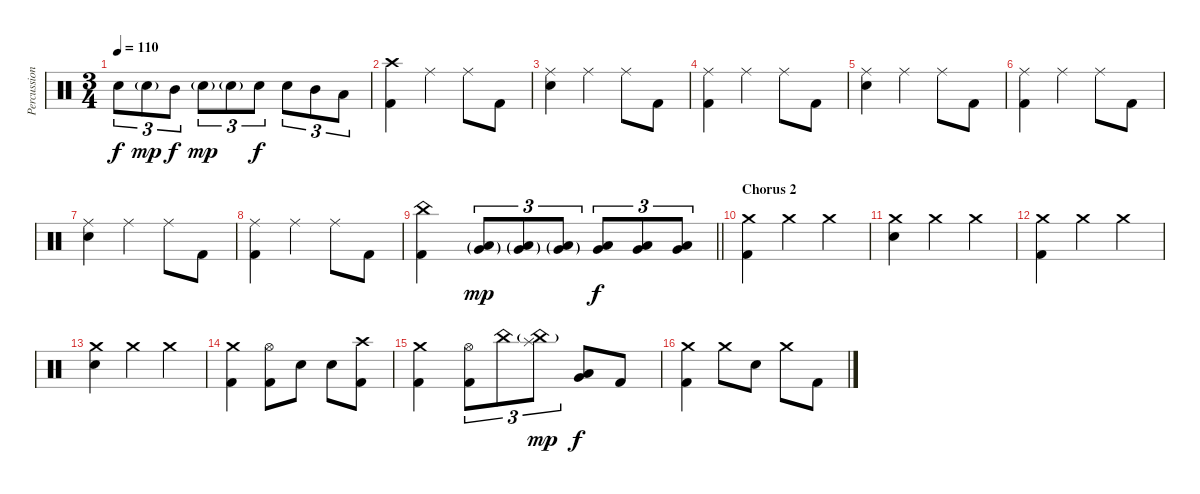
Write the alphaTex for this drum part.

\track ("Percussion" "Percussion") {instrument percussion}
\staff {score}
\articulation defaults
\ts (3 4)
\tempo 110
\clef neutral
\ks c "Snare (hit) 2".8{tu (3 2) dy f} "Snare (hit) 2"{g}.8{tu (3 2) dy mp} "Mid Tom (hit)".8{tu (3 2) dy f} "Snare (hit) 2"{g}.8{tu (3 2) dy mp} "Snare (hit) 2"{g}.8{tu (3 2)} "Snare (hit) 2".8{tu (3 2) dy f} "Snare (hit) 2".8{tu (3 2)} "Mid Tom (hit)".8{tu (3 2)} "Low Tom (hit)".8{tu (3 2)}
|
("Crash high (hit)" "Kick (hit) 2").4 "Ride (middle)".4 "Ride (middle)".8 "Kick (hit) 2".8 |
("Ride (middle)" "Snare (hit) 2").4 "Ride (middle)".4 "Ride (middle)".8 "Kick (hit) 2".8 |
("Ride (middle)" "Kick (hit) 2").4 "Ride (middle)".4 "Ride (middle)".8 "Kick (hit) 2".8 |
("Ride (middle)" "Snare (hit) 2").4 "Ride (middle)".4 "Ride (middle)".8 "Kick (hit) 2".8 |
("Ride (middle)" "Kick (hit) 2").4 "Ride (middle)".4 "Ride (middle)".8 "Kick (hit) 2".8 |
("Ride (middle)" "Snare (hit) 2").4 "Ride (middle)".4 "Ride (middle)".8 "Kick (hit) 2".8 |
("Ride (middle)" "Kick (hit) 2").4 "Ride (middle)".4 "Ride (middle)".8 "Kick (hit) 2".8 |
\barLineRight lightlight
("China (hit)" "Kick (hit) 2").4 ("Low Tom (hit)"{g} "Very Low Tom (hit)"{g}).8{tu (3 2) dy mp} ("Low Tom (hit)"{g} "Very Low Tom (hit)"{g}).8{tu (3 2)} ("Low Tom (hit)"{g} "Very Low Tom (hit)"{g}).8{tu (3 2)} ("Low Tom (hit)" "Very Low Tom (hit)").8{tu (3 2) dy f} ("Low Tom (hit)" "Very Low Tom (hit)").8{tu (3 2)} ("Low Tom (hit)" "Very Low Tom (hit)").8{tu (3 2)} |
\section ("" "Chorus 2")
("Crash medium (hit)" "Kick (hit) 2").4 "Crash medium (hit)".4 "Crash medium (hit)".4 |
("Crash medium (hit)" "Snare (hit) 2").4 "Crash medium (hit)".4 "Crash medium (hit)".4 |
("Crash medium (hit)" "Kick (hit) 2").4 "Crash medium (hit)".4 "Crash medium (hit)".4 |
("Crash medium (hit)" "Snare (hit) 2").4 "Crash medium (hit)".4 "Crash medium (hit)".4 |
("Crash medium (hit)" "Kick (hit) 2").4 ("Hi-Hat (open)" "Kick (hit) 2").8 "Snare (hit) 2".8 "Snare (hit) 2".8 ("Crash high (hit)" "Kick (hit) 2").8 |
("Crash medium (hit)" "Kick (hit) 2").4 ("Hi-Hat (open)" "Kick (hit) 2").8{tu (3 2)} "China (hit)".8{tu (3 2)} ("China (hit)"{g} "Splash (hit)").8{tu (3 2) dy mp} ("Low Tom (hit)" "Very Low Tom (hit)").8{dy f} "Kick (hit) 2".8 |
("Crash medium (hit)" "Kick (hit) 2").4 "Crash medium (hit)".8 "Snare (hit) 2".8 "Crash medium (hit)".8 "Kick (hit) 2".8
